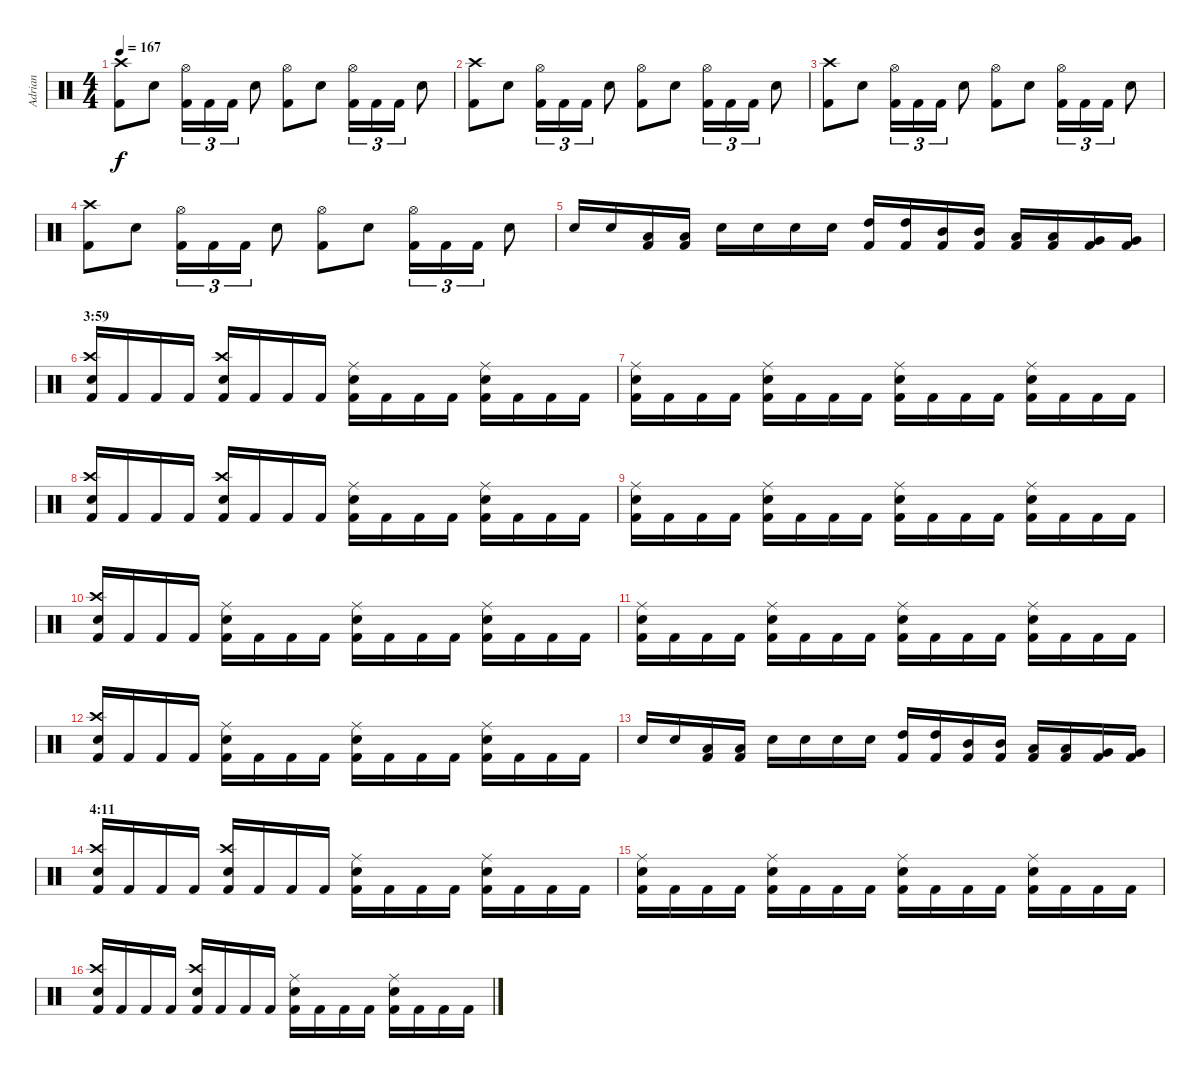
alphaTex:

\track ("Adrian" "Adrian") {instrument percussion}
\staff {score}
\articulation defaults
\ts (4 4)
\tempo 167
\clef neutral
\ks c
("Kick (hit) 2" "Crash high (hit)").8{dy f} "Snare (hit) 2".8 ("Kick (hit) 2" "Hi-Hat (open)").16{tu (3 2)} "Kick (hit) 2".16{tu (3 2)} "Kick (hit) 2".16{tu (3 2)} "Snare (hit) 2".8 ("Kick (hit) 2" "Hi-Hat (open)").8 "Snare (hit) 2".8 ("Kick (hit) 2" "Hi-Hat (open)").16{tu (3 2)} "Kick (hit) 2".16{tu (3 2)} "Kick (hit) 2".16{tu (3 2)} "Snare (hit) 2".8 |
("Kick (hit) 2" "Crash high (hit)").8 "Snare (hit) 2".8 ("Kick (hit) 2" "Hi-Hat (open)").16{tu (3 2)} "Kick (hit) 2".16{tu (3 2)} "Kick (hit) 2".16{tu (3 2)} "Snare (hit) 2".8 ("Kick (hit) 2" "Hi-Hat (open)").8 "Snare (hit) 2".8 ("Kick (hit) 2" "Hi-Hat (open)").16{tu (3 2)} "Kick (hit) 2".16{tu (3 2)} "Kick (hit) 2".16{tu (3 2)} "Snare (hit) 2".8 |
("Kick (hit) 2" "Crash high (hit)").8 "Snare (hit) 2".8 ("Kick (hit) 2" "Hi-Hat (open)").16{tu (3 2)} "Kick (hit) 2".16{tu (3 2)} "Kick (hit) 2".16{tu (3 2)} "Snare (hit) 2".8 ("Kick (hit) 2" "Hi-Hat (open)").8 "Snare (hit) 2".8 ("Kick (hit) 2" "Hi-Hat (open)").16{tu (3 2)} "Kick (hit) 2".16{tu (3 2)} "Kick (hit) 2".16{tu (3 2)} "Snare (hit) 2".8 |
("Kick (hit) 2" "Crash high (hit)").8 "Snare (hit) 2".8 ("Kick (hit) 2" "Hi-Hat (open)").16{tu (3 2)} "Kick (hit) 2".16{tu (3 2)} "Kick (hit) 2".16{tu (3 2)} "Snare (hit) 2".8 ("Kick (hit) 2" "Hi-Hat (open)").8 "Snare (hit) 2".8 ("Kick (hit) 2" "Hi-Hat (open)").16{tu (3 2)} "Kick (hit) 2".16{tu (3 2)} "Kick (hit) 2".16{tu (3 2)} "Snare (hit) 2".8 |
"Snare (hit) 2".16 "Snare (hit) 2".16 ("Kick (hit) 2" "Low Tom (hit)").16 ("Kick (hit) 2" "Low Tom (hit)").16 "Snare (hit) 2".16 "Snare (hit) 2".16 "Snare (hit) 2".16 "Snare (hit) 2".16 ("Kick (hit) 2" "High Tom (hit)").16 ("Kick (hit) 2" "High Tom (hit)").16 ("Kick (hit) 2" "Mid Tom (hit)").16 ("Kick (hit) 2" "Mid Tom (hit)").16 ("Kick (hit) 2" "Low Tom (hit)").16 ("Kick (hit) 2" "Low Tom (hit)").16 ("Kick (hit) 2" "Very Low Tom (hit)").16 ("Kick (hit) 2" "Very Low Tom (hit)").16 |
\section ("" "3:59")
("Kick (hit) 2" "Snare (hit) 2" "Crash high (hit)").16 "Kick (hit) 2".16 "Kick (hit) 2".16 "Kick (hit) 2".16 ("Kick (hit) 2" "Snare (hit) 2" "Crash high (hit)").16 "Kick (hit) 2".16 "Kick (hit) 2".16 "Kick (hit) 2".16 ("Kick (hit) 2" "Snare (hit) 2" "Ride (middle)").16 "Kick (hit) 2".16 "Kick (hit) 2".16 "Kick (hit) 2".16 ("Kick (hit) 2" "Snare (hit) 2" "Ride (middle)").16 "Kick (hit) 2".16 "Kick (hit) 2".16 "Kick (hit) 2".16 |
("Kick (hit) 2" "Snare (hit) 2" "Ride (middle)").16 "Kick (hit) 2".16 "Kick (hit) 2".16 "Kick (hit) 2".16 ("Kick (hit) 2" "Snare (hit) 2" "Ride (middle)").16 "Kick (hit) 2".16 "Kick (hit) 2".16 "Kick (hit) 2".16 ("Kick (hit) 2" "Snare (hit) 2" "Ride (middle)").16 "Kick (hit) 2".16 "Kick (hit) 2".16 "Kick (hit) 2".16 ("Kick (hit) 2" "Snare (hit) 2" "Ride (middle)").16 "Kick (hit) 2".16 "Kick (hit) 2".16 "Kick (hit) 2".16 |
("Kick (hit) 2" "Snare (hit) 2" "Crash high (hit)").16 "Kick (hit) 2".16 "Kick (hit) 2".16 "Kick (hit) 2".16 ("Kick (hit) 2" "Snare (hit) 2" "Crash high (hit)").16 "Kick (hit) 2".16 "Kick (hit) 2".16 "Kick (hit) 2".16 ("Kick (hit) 2" "Snare (hit) 2" "Ride (middle)").16 "Kick (hit) 2".16 "Kick (hit) 2".16 "Kick (hit) 2".16 ("Kick (hit) 2" "Snare (hit) 2" "Ride (middle)").16 "Kick (hit) 2".16 "Kick (hit) 2".16 "Kick (hit) 2".16 |
("Kick (hit) 2" "Snare (hit) 2" "Ride (middle)").16 "Kick (hit) 2".16 "Kick (hit) 2".16 "Kick (hit) 2".16 ("Kick (hit) 2" "Snare (hit) 2" "Ride (middle)").16 "Kick (hit) 2".16 "Kick (hit) 2".16 "Kick (hit) 2".16 ("Kick (hit) 2" "Snare (hit) 2" "Ride (middle)").16 "Kick (hit) 2".16 "Kick (hit) 2".16 "Kick (hit) 2".16 ("Kick (hit) 2" "Snare (hit) 2" "Ride (middle)").16 "Kick (hit) 2".16 "Kick (hit) 2".16 "Kick (hit) 2".16 |
("Kick (hit) 2" "Snare (hit) 2" "Crash high (hit)").16 "Kick (hit) 2".16 "Kick (hit) 2".16 "Kick (hit) 2".16 ("Kick (hit) 2" "Snare (hit) 2" "Ride (middle)").16 "Kick (hit) 2".16 "Kick (hit) 2".16 "Kick (hit) 2".16 ("Kick (hit) 2" "Snare (hit) 2" "Ride (middle)").16 "Kick (hit) 2".16 "Kick (hit) 2".16 "Kick (hit) 2".16 ("Kick (hit) 2" "Snare (hit) 2" "Ride (middle)").16 "Kick (hit) 2".16 "Kick (hit) 2".16 "Kick (hit) 2".16 |
("Kick (hit) 2" "Snare (hit) 2" "Ride (middle)").16 "Kick (hit) 2".16 "Kick (hit) 2".16 "Kick (hit) 2".16 ("Kick (hit) 2" "Snare (hit) 2" "Ride (middle)").16 "Kick (hit) 2".16 "Kick (hit) 2".16 "Kick (hit) 2".16 ("Kick (hit) 2" "Snare (hit) 2" "Ride (middle)").16 "Kick (hit) 2".16 "Kick (hit) 2".16 "Kick (hit) 2".16 ("Kick (hit) 2" "Snare (hit) 2" "Ride (middle)").16 "Kick (hit) 2".16 "Kick (hit) 2".16 "Kick (hit) 2".16 |
("Kick (hit) 2" "Snare (hit) 2" "Crash high (hit)").16 "Kick (hit) 2".16 "Kick (hit) 2".16 "Kick (hit) 2".16 ("Kick (hit) 2" "Snare (hit) 2" "Ride (middle)").16 "Kick (hit) 2".16 "Kick (hit) 2".16 "Kick (hit) 2".16 ("Kick (hit) 2" "Snare (hit) 2" "Ride (middle)").16 "Kick (hit) 2".16 "Kick (hit) 2".16 "Kick (hit) 2".16 ("Kick (hit) 2" "Snare (hit) 2" "Ride (middle)").16 "Kick (hit) 2".16 "Kick (hit) 2".16 "Kick (hit) 2".16 |
"Snare (hit) 2".16 "Snare (hit) 2".16 ("Kick (hit) 2" "Low Tom (hit)").16 ("Kick (hit) 2" "Low Tom (hit)").16 "Snare (hit) 2".16 "Snare (hit) 2".16 "Snare (hit) 2".16 "Snare (hit) 2".16 ("Kick (hit) 2" "High Tom (hit)").16 ("Kick (hit) 2" "High Tom (hit)").16 ("Kick (hit) 2" "Mid Tom (hit)").16 ("Kick (hit) 2" "Mid Tom (hit)").16 ("Kick (hit) 2" "Low Tom (hit)").16 ("Kick (hit) 2" "Low Tom (hit)").16 ("Kick (hit) 2" "Very Low Tom (hit)").16 ("Kick (hit) 2" "Very Low Tom (hit)").16 |
\section ("" "4:11")
("Kick (hit) 2" "Snare (hit) 2" "Crash high (hit)").16 "Kick (hit) 2".16 "Kick (hit) 2".16 "Kick (hit) 2".16 ("Kick (hit) 2" "Snare (hit) 2" "Crash high (hit)").16 "Kick (hit) 2".16 "Kick (hit) 2".16 "Kick (hit) 2".16 ("Kick (hit) 2" "Snare (hit) 2" "Ride (middle)").16 "Kick (hit) 2".16 "Kick (hit) 2".16 "Kick (hit) 2".16 ("Kick (hit) 2" "Snare (hit) 2" "Ride (middle)").16 "Kick (hit) 2".16 "Kick (hit) 2".16 "Kick (hit) 2".16 |
("Kick (hit) 2" "Snare (hit) 2" "Ride (middle)").16 "Kick (hit) 2".16 "Kick (hit) 2".16 "Kick (hit) 2".16 ("Kick (hit) 2" "Snare (hit) 2" "Ride (middle)").16 "Kick (hit) 2".16 "Kick (hit) 2".16 "Kick (hit) 2".16 ("Kick (hit) 2" "Snare (hit) 2" "Ride (middle)").16 "Kick (hit) 2".16 "Kick (hit) 2".16 "Kick (hit) 2".16 ("Kick (hit) 2" "Snare (hit) 2" "Ride (middle)").16 "Kick (hit) 2".16 "Kick (hit) 2".16 "Kick (hit) 2".16 |
("Kick (hit) 2" "Snare (hit) 2" "Crash high (hit)").16 "Kick (hit) 2".16 "Kick (hit) 2".16 "Kick (hit) 2".16 ("Kick (hit) 2" "Snare (hit) 2" "Crash high (hit)").16 "Kick (hit) 2".16 "Kick (hit) 2".16 "Kick (hit) 2".16 ("Kick (hit) 2" "Snare (hit) 2" "Ride (middle)").16 "Kick (hit) 2".16 "Kick (hit) 2".16 "Kick (hit) 2".16 ("Kick (hit) 2" "Snare (hit) 2" "Ride (middle)").16 "Kick (hit) 2".16 "Kick (hit) 2".16 "Kick (hit) 2".16
